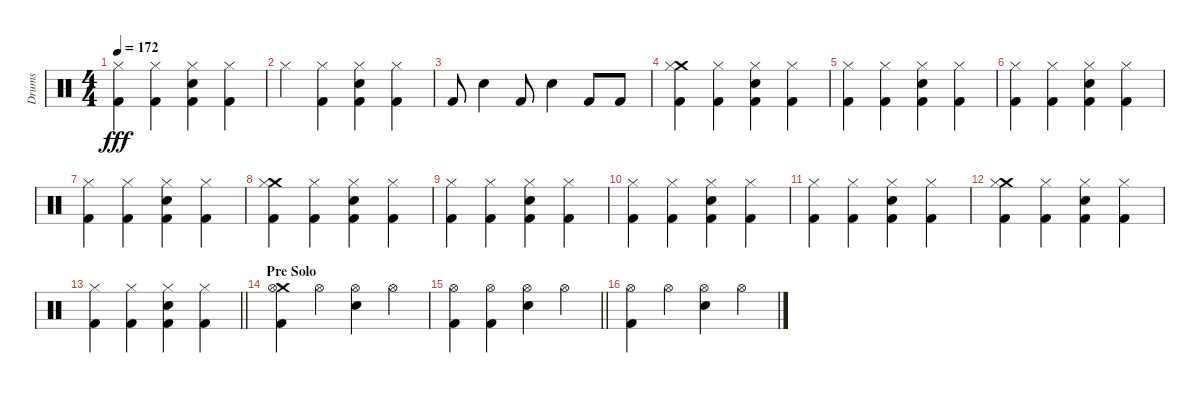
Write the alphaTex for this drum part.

\track ("Drums" "Drums") {instrument percussion}
\staff {score}
\articulation defaults
\ts (4 4)
\tempo 172
\clef neutral
\ks c
("Hi-Hat (closed)" "Kick (hit) 2").4{dy fff} ("Hi-Hat (closed)" "Kick (hit) 2").4 ("Hi-Hat (closed)" "Electric Snare (hit)" "Kick (hit) 2").4 ("Hi-Hat (closed)" "Kick (hit) 2").4 |
"Hi-Hat (closed)".4 ("Hi-Hat (closed)" "Kick (hit) 2").4 ("Hi-Hat (closed)" "Electric Snare (hit)" "Kick (hit) 2").4 ("Hi-Hat (closed)" "Kick (hit) 2").4 |
"Kick (hit) 2".8 "Electric Snare (hit)".4 "Kick (hit) 2".8 "Electric Snare (hit)".4 "Kick (hit) 2".8 "Kick (hit) 2".8 |
("Crash medium (hit)" "Hi-Hat (closed)" "Kick (hit) 2").4 ("Hi-Hat (closed)" "Kick (hit) 2").4 ("Hi-Hat (closed)" "Electric Snare (hit)" "Kick (hit) 2").4 ("Hi-Hat (closed)" "Kick (hit) 2").4 |
("Hi-Hat (closed)" "Kick (hit) 2").4 ("Hi-Hat (closed)" "Kick (hit) 2").4 ("Hi-Hat (closed)" "Electric Snare (hit)" "Kick (hit) 2").4 ("Hi-Hat (closed)" "Kick (hit) 2").4 |
("Hi-Hat (closed)" "Kick (hit) 2").4 ("Hi-Hat (closed)" "Kick (hit) 2").4 ("Hi-Hat (closed)" "Electric Snare (hit)" "Kick (hit) 2").4 ("Hi-Hat (closed)" "Kick (hit) 2").4 |
("Hi-Hat (closed)" "Kick (hit) 2").4 ("Hi-Hat (closed)" "Kick (hit) 2").4 ("Hi-Hat (closed)" "Electric Snare (hit)" "Kick (hit) 2").4 ("Hi-Hat (closed)" "Kick (hit) 2").4 |
("Crash medium (hit)" "Hi-Hat (closed)" "Kick (hit) 2").4 ("Hi-Hat (closed)" "Kick (hit) 2").4 ("Hi-Hat (closed)" "Electric Snare (hit)" "Kick (hit) 2").4 ("Hi-Hat (closed)" "Kick (hit) 2").4 |
("Hi-Hat (closed)" "Kick (hit) 2").4 ("Hi-Hat (closed)" "Kick (hit) 2").4 ("Hi-Hat (closed)" "Electric Snare (hit)" "Kick (hit) 2").4 ("Hi-Hat (closed)" "Kick (hit) 2").4 |
("Hi-Hat (closed)" "Kick (hit) 2").4 ("Hi-Hat (closed)" "Kick (hit) 2").4 ("Hi-Hat (closed)" "Electric Snare (hit)" "Kick (hit) 2").4 ("Hi-Hat (closed)" "Kick (hit) 2").4 |
("Hi-Hat (closed)" "Kick (hit) 2").4 ("Hi-Hat (closed)" "Kick (hit) 2").4 ("Hi-Hat (closed)" "Electric Snare (hit)" "Kick (hit) 2").4 ("Hi-Hat (closed)" "Kick (hit) 2").4 |
("Crash medium (hit)" "Hi-Hat (closed)" "Kick (hit) 2").4 ("Hi-Hat (closed)" "Kick (hit) 2").4 ("Hi-Hat (closed)" "Electric Snare (hit)" "Kick (hit) 2").4 ("Hi-Hat (closed)" "Kick (hit) 2").4 |
\barLineRight lightlight
("Hi-Hat (closed)" "Kick (hit) 2").4 ("Hi-Hat (closed)" "Kick (hit) 2").4 ("Hi-Hat (closed)" "Electric Snare (hit)" "Kick (hit) 2").4 ("Hi-Hat (closed)" "Kick (hit) 2").4 |
\section ("" "Pre Solo")
("Crash medium (hit)" "Hi-Hat (open)" "Kick (hit) 2").4 "Hi-Hat (open)".4 ("Hi-Hat (open)" "Electric Snare (hit)").4 "Hi-Hat (open)".4 |
\barLineRight lightlight
("Hi-Hat (open)" "Kick (hit) 2").4 ("Hi-Hat (open)" "Kick (hit) 2").4 ("Hi-Hat (open)" "Electric Snare (hit)").4 "Hi-Hat (open)".4 |
("Hi-Hat (open)" "Kick (hit) 2").4 "Hi-Hat (open)".4 ("Hi-Hat (open)" "Electric Snare (hit)").4 "Hi-Hat (open)".4
